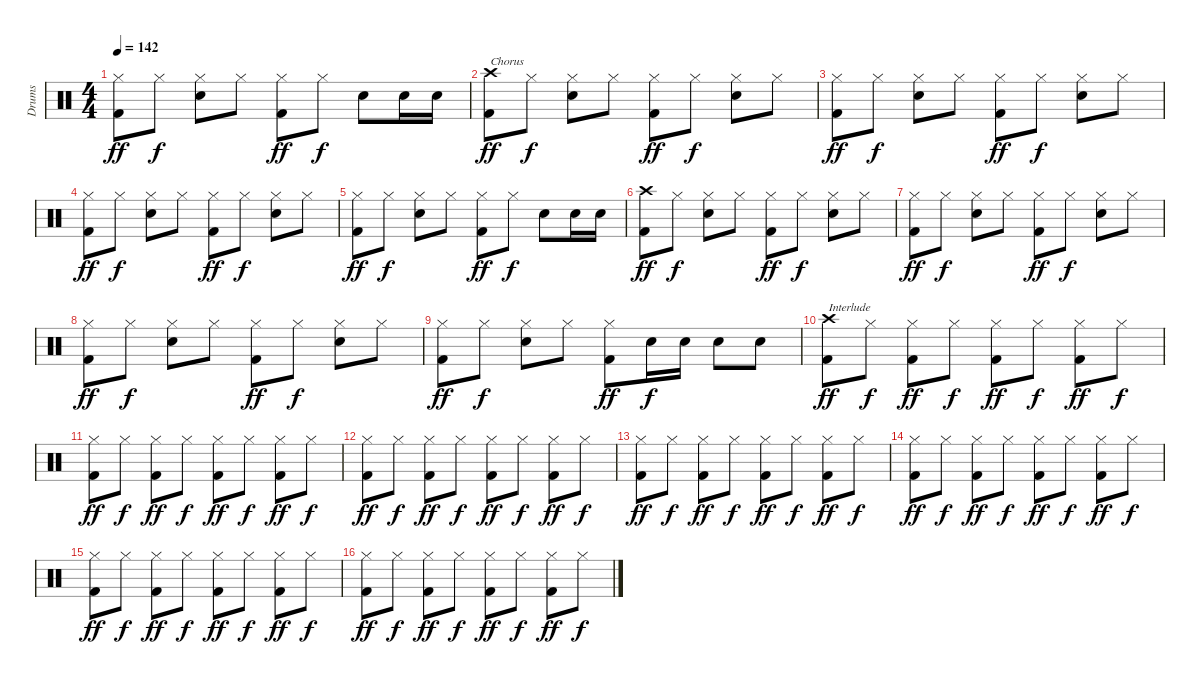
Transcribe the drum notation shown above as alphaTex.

\track ("Drums" "Drums") {instrument percussion}
\staff {score}
\articulation defaults
\ts (4 4)
\tempo 142
\clef neutral
\ks c
("Hi-Hat (closed)" "Kick (hit) 2").8{dy ff} "Hi-Hat (closed)".8{dy f} ("Hi-Hat (closed)" "Snare (hit) 2").8 "Hi-Hat (closed)".8 ("Hi-Hat (closed)" "Kick (hit) 2").8{dy ff} "Hi-Hat (closed)".8{dy f} "Snare (hit) 2".8 "Snare (hit) 2".16 "Snare (hit) 2".16 |
("Crash high (hit)" "Kick (hit) 2").8{txt "Chorus" dy ff} "Hi-Hat (closed)".8{dy f} ("Hi-Hat (closed)" "Snare (hit) 2").8 "Hi-Hat (closed)".8 ("Hi-Hat (closed)" "Kick (hit) 2").8{dy ff} "Hi-Hat (closed)".8{dy f} ("Hi-Hat (closed)" "Snare (hit) 2").8 "Hi-Hat (closed)".8 |
("Hi-Hat (closed)" "Kick (hit) 2").8{dy ff} "Hi-Hat (closed)".8{dy f} ("Hi-Hat (closed)" "Snare (hit) 2").8 "Hi-Hat (closed)".8 ("Hi-Hat (closed)" "Kick (hit) 2").8{dy ff} "Hi-Hat (closed)".8{dy f} ("Hi-Hat (closed)" "Snare (hit) 2").8 "Hi-Hat (closed)".8 |
("Hi-Hat (closed)" "Kick (hit) 2").8{dy ff} "Hi-Hat (closed)".8{dy f} ("Hi-Hat (closed)" "Snare (hit) 2").8 "Hi-Hat (closed)".8 ("Hi-Hat (closed)" "Kick (hit) 2").8{dy ff} "Hi-Hat (closed)".8{dy f} ("Hi-Hat (closed)" "Snare (hit) 2").8 "Hi-Hat (closed)".8 |
("Hi-Hat (closed)" "Kick (hit) 2").8{dy ff} "Hi-Hat (closed)".8{dy f} ("Hi-Hat (closed)" "Snare (hit) 2").8 "Hi-Hat (closed)".8 ("Hi-Hat (closed)" "Kick (hit) 2").8{dy ff} "Hi-Hat (closed)".8{dy f} "Snare (hit) 2".8 "Snare (hit) 2".16 "Snare (hit) 2".16 |
("Crash high (hit)" "Kick (hit) 2").8{dy ff} "Hi-Hat (closed)".8{dy f} ("Hi-Hat (closed)" "Snare (hit) 2").8 "Hi-Hat (closed)".8 ("Hi-Hat (closed)" "Kick (hit) 2").8{dy ff} "Hi-Hat (closed)".8{dy f} ("Hi-Hat (closed)" "Snare (hit) 2").8 "Hi-Hat (closed)".8 |
("Hi-Hat (closed)" "Kick (hit) 2").8{dy ff} "Hi-Hat (closed)".8{dy f} ("Hi-Hat (closed)" "Snare (hit) 2").8 "Hi-Hat (closed)".8 ("Hi-Hat (closed)" "Kick (hit) 2").8{dy ff} "Hi-Hat (closed)".8{dy f} ("Hi-Hat (closed)" "Snare (hit) 2").8 "Hi-Hat (closed)".8 |
("Hi-Hat (closed)" "Kick (hit) 2").8{dy ff} "Hi-Hat (closed)".8{dy f} ("Hi-Hat (closed)" "Snare (hit) 2").8 "Hi-Hat (closed)".8 ("Hi-Hat (closed)" "Kick (hit) 2").8{dy ff} "Hi-Hat (closed)".8{dy f} ("Hi-Hat (closed)" "Snare (hit) 2").8 "Hi-Hat (closed)".8 |
("Hi-Hat (closed)" "Kick (hit) 2").8{dy ff} "Hi-Hat (closed)".8{dy f} ("Hi-Hat (closed)" "Snare (hit) 2").8 "Hi-Hat (closed)".8 ("Hi-Hat (closed)" "Kick (hit) 2").8{dy ff} "Snare (hit) 2".16{dy f} "Snare (hit) 2".16 "Snare (hit) 2".8 "Snare (hit) 2".8 |
("Crash high (hit)" "Kick (hit) 2").8{txt "Interlude" dy ff} "Hi-Hat (closed)".8{dy f} ("Hi-Hat (closed)" "Kick (hit) 2").8{dy ff} "Hi-Hat (closed)".8{dy f} ("Hi-Hat (closed)" "Kick (hit) 2").8{dy ff} "Hi-Hat (closed)".8{dy f} ("Hi-Hat (closed)" "Kick (hit) 2").8{dy ff} "Hi-Hat (closed)".8{dy f} |
("Hi-Hat (closed)" "Kick (hit) 2").8{dy ff} "Hi-Hat (closed)".8{dy f} ("Hi-Hat (closed)" "Kick (hit) 2").8{dy ff} "Hi-Hat (closed)".8{dy f} ("Hi-Hat (closed)" "Kick (hit) 2").8{dy ff} "Hi-Hat (closed)".8{dy f} ("Hi-Hat (closed)" "Kick (hit) 2").8{dy ff} "Hi-Hat (closed)".8{dy f} |
("Hi-Hat (closed)" "Kick (hit) 2").8{dy ff} "Hi-Hat (closed)".8{dy f} ("Hi-Hat (closed)" "Kick (hit) 2").8{dy ff} "Hi-Hat (closed)".8{dy f} ("Hi-Hat (closed)" "Kick (hit) 2").8{dy ff} "Hi-Hat (closed)".8{dy f} ("Hi-Hat (closed)" "Kick (hit) 2").8{dy ff} "Hi-Hat (closed)".8{dy f} |
("Hi-Hat (closed)" "Kick (hit) 2").8{dy ff} "Hi-Hat (closed)".8{dy f} ("Hi-Hat (closed)" "Kick (hit) 2").8{dy ff} "Hi-Hat (closed)".8{dy f} ("Hi-Hat (closed)" "Kick (hit) 2").8{dy ff} "Hi-Hat (closed)".8{dy f} ("Hi-Hat (closed)" "Kick (hit) 2").8{dy ff} "Hi-Hat (closed)".8{dy f} |
("Hi-Hat (closed)" "Kick (hit) 2").8{dy ff} "Hi-Hat (closed)".8{dy f} ("Hi-Hat (closed)" "Kick (hit) 2").8{dy ff} "Hi-Hat (closed)".8{dy f} ("Hi-Hat (closed)" "Kick (hit) 2").8{dy ff} "Hi-Hat (closed)".8{dy f} ("Hi-Hat (closed)" "Kick (hit) 2").8{dy ff} "Hi-Hat (closed)".8{dy f} |
("Hi-Hat (closed)" "Kick (hit) 2").8{dy ff} "Hi-Hat (closed)".8{dy f} ("Hi-Hat (closed)" "Kick (hit) 2").8{dy ff} "Hi-Hat (closed)".8{dy f} ("Hi-Hat (closed)" "Kick (hit) 2").8{dy ff} "Hi-Hat (closed)".8{dy f} ("Hi-Hat (closed)" "Kick (hit) 2").8{dy ff} "Hi-Hat (closed)".8{dy f} |
("Hi-Hat (closed)" "Kick (hit) 2").8{dy ff} "Hi-Hat (closed)".8{dy f} ("Hi-Hat (closed)" "Kick (hit) 2").8{dy ff} "Hi-Hat (closed)".8{dy f} ("Hi-Hat (closed)" "Kick (hit) 2").8{dy ff} "Hi-Hat (closed)".8{dy f} ("Hi-Hat (closed)" "Kick (hit) 2").8{dy ff} "Hi-Hat (closed)".8{dy f}
